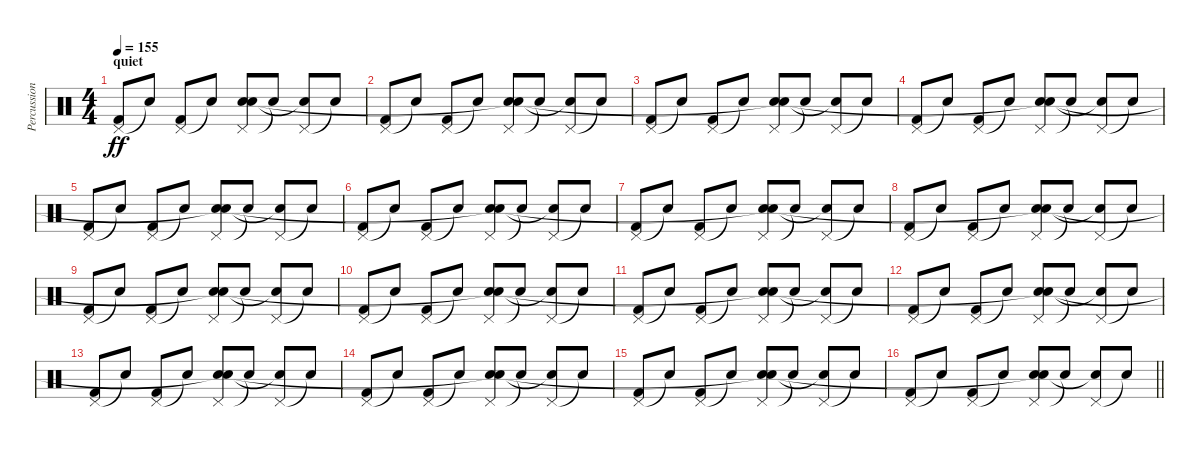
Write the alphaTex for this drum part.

\track ("Percussion" "Percussion") {instrument percussion}
\staff {score}
\articulation defaults
\ts (4 4)
\section ("" "quiet")
\tempo 155
\clef neutral
\ks c
("Pedal Hi-Hat (hit)" "Kick (hit) 2").8{dy ff} "Snare (hit)"{t}.8 ("Pedal Hi-Hat (hit)" "Kick (hit) 2").8 "Snare (hit)"{t}.8 ("Pedal Hi-Hat (hit)" "Snare (hit) 2" "Snare (hit)"{t}).8 "Snare (hit)"{t}.8 ("Pedal Hi-Hat (hit)" "Snare (hit)"{t}).8 "Snare (hit)"{t}.8 |
("Pedal Hi-Hat (hit)" "Kick (hit) 2").8 "Snare (hit)"{t}.8 ("Pedal Hi-Hat (hit)" "Kick (hit) 2").8 "Snare (hit)"{t}.8 ("Pedal Hi-Hat (hit)" "Snare (hit) 2" "Snare (hit)"{t}).8 "Snare (hit)"{t}.8 ("Pedal Hi-Hat (hit)" "Snare (hit)"{t}).8 "Snare (hit)"{t}.8 |
("Pedal Hi-Hat (hit)" "Kick (hit) 2").8 "Snare (hit)"{t}.8 ("Pedal Hi-Hat (hit)" "Kick (hit) 2").8 "Snare (hit)"{t}.8 ("Pedal Hi-Hat (hit)" "Snare (hit) 2" "Snare (hit)"{t}).8 "Snare (hit)"{t}.8 ("Pedal Hi-Hat (hit)" "Snare (hit)"{t}).8 "Snare (hit)"{t}.8 |
("Pedal Hi-Hat (hit)" "Kick (hit) 2").8 "Snare (hit)"{t}.8 ("Pedal Hi-Hat (hit)" "Kick (hit) 2").8 "Snare (hit)"{t}.8 ("Pedal Hi-Hat (hit)" "Snare (hit) 2" "Snare (hit)"{t}).8 "Snare (hit)"{t}.8 ("Pedal Hi-Hat (hit)" "Snare (hit)"{t}).8 "Snare (hit)"{t}.8 |
("Pedal Hi-Hat (hit)" "Kick (hit) 2").8 "Snare (hit)"{t}.8 ("Pedal Hi-Hat (hit)" "Kick (hit) 2").8 "Snare (hit)"{t}.8 ("Pedal Hi-Hat (hit)" "Snare (hit) 2" "Snare (hit)"{t}).8 "Snare (hit)"{t}.8 ("Pedal Hi-Hat (hit)" "Snare (hit)"{t}).8 "Snare (hit)"{t}.8 |
("Pedal Hi-Hat (hit)" "Kick (hit) 2").8 "Snare (hit)"{t}.8 ("Pedal Hi-Hat (hit)" "Kick (hit) 2").8 "Snare (hit)"{t}.8 ("Pedal Hi-Hat (hit)" "Snare (hit) 2" "Snare (hit)"{t}).8 "Snare (hit)"{t}.8 ("Pedal Hi-Hat (hit)" "Snare (hit)"{t}).8 "Snare (hit)"{t}.8 |
("Pedal Hi-Hat (hit)" "Kick (hit) 2").8 "Snare (hit)"{t}.8 ("Pedal Hi-Hat (hit)" "Kick (hit) 2").8 "Snare (hit)"{t}.8 ("Pedal Hi-Hat (hit)" "Snare (hit) 2" "Snare (hit)"{t}).8 "Snare (hit)"{t}.8 ("Pedal Hi-Hat (hit)" "Snare (hit)"{t}).8 "Snare (hit)"{t}.8 |
("Pedal Hi-Hat (hit)" "Kick (hit) 2").8 "Snare (hit)"{t}.8 ("Pedal Hi-Hat (hit)" "Kick (hit) 2").8 "Snare (hit)"{t}.8 ("Pedal Hi-Hat (hit)" "Snare (hit) 2" "Snare (hit)"{t}).8 "Snare (hit)"{t}.8 ("Pedal Hi-Hat (hit)" "Snare (hit)"{t}).8 "Snare (hit)"{t}.8 |
("Pedal Hi-Hat (hit)" "Kick (hit) 2").8 "Snare (hit)"{t}.8 ("Pedal Hi-Hat (hit)" "Kick (hit) 2").8 "Snare (hit)"{t}.8 ("Pedal Hi-Hat (hit)" "Snare (hit) 2" "Snare (hit)"{t}).8 "Snare (hit)"{t}.8 ("Pedal Hi-Hat (hit)" "Snare (hit)"{t}).8 "Snare (hit)"{t}.8 |
("Pedal Hi-Hat (hit)" "Kick (hit) 2").8 "Snare (hit)"{t}.8 ("Pedal Hi-Hat (hit)" "Kick (hit) 2").8 "Snare (hit)"{t}.8 ("Pedal Hi-Hat (hit)" "Snare (hit) 2" "Snare (hit)"{t}).8 "Snare (hit)"{t}.8 ("Pedal Hi-Hat (hit)" "Snare (hit)"{t}).8 "Snare (hit)"{t}.8 |
("Pedal Hi-Hat (hit)" "Kick (hit) 2").8 "Snare (hit)"{t}.8 ("Pedal Hi-Hat (hit)" "Kick (hit) 2").8 "Snare (hit)"{t}.8 ("Pedal Hi-Hat (hit)" "Snare (hit) 2" "Snare (hit)"{t}).8 "Snare (hit)"{t}.8 ("Pedal Hi-Hat (hit)" "Snare (hit)"{t}).8 "Snare (hit)"{t}.8 |
("Pedal Hi-Hat (hit)" "Kick (hit) 2").8 "Snare (hit)"{t}.8 ("Pedal Hi-Hat (hit)" "Kick (hit) 2").8 "Snare (hit)"{t}.8 ("Pedal Hi-Hat (hit)" "Snare (hit) 2" "Snare (hit)"{t}).8 "Snare (hit)"{t}.8 ("Pedal Hi-Hat (hit)" "Snare (hit)"{t}).8 "Snare (hit)"{t}.8 |
("Pedal Hi-Hat (hit)" "Kick (hit) 2").8 "Snare (hit)"{t}.8 ("Pedal Hi-Hat (hit)" "Kick (hit) 2").8 "Snare (hit)"{t}.8 ("Pedal Hi-Hat (hit)" "Snare (hit) 2" "Snare (hit)"{t}).8 "Snare (hit)"{t}.8 ("Pedal Hi-Hat (hit)" "Snare (hit)"{t}).8 "Snare (hit)"{t}.8 |
("Pedal Hi-Hat (hit)" "Kick (hit) 2").8 "Snare (hit)"{t}.8 ("Pedal Hi-Hat (hit)" "Kick (hit) 2").8 "Snare (hit)"{t}.8 ("Pedal Hi-Hat (hit)" "Snare (hit) 2" "Snare (hit)"{t}).8 "Snare (hit)"{t}.8 ("Pedal Hi-Hat (hit)" "Snare (hit)"{t}).8 "Snare (hit)"{t}.8 |
("Pedal Hi-Hat (hit)" "Kick (hit) 2").8 "Snare (hit)"{t}.8 ("Pedal Hi-Hat (hit)" "Kick (hit) 2").8 "Snare (hit)"{t}.8 ("Pedal Hi-Hat (hit)" "Snare (hit) 2" "Snare (hit)"{t}).8 "Snare (hit)"{t}.8 ("Pedal Hi-Hat (hit)" "Snare (hit)"{t}).8 "Snare (hit)"{t}.8 |
\barLineRight lightlight
("Pedal Hi-Hat (hit)" "Kick (hit) 2").8 "Snare (hit)"{t}.8 ("Pedal Hi-Hat (hit)" "Kick (hit) 2").8 "Snare (hit)"{t}.8 ("Pedal Hi-Hat (hit)" "Snare (hit) 2" "Snare (hit)"{t}).8 "Snare (hit)"{t}.8 ("Pedal Hi-Hat (hit)" "Snare (hit)"{t}).8 "Snare (hit)"{t}.8
